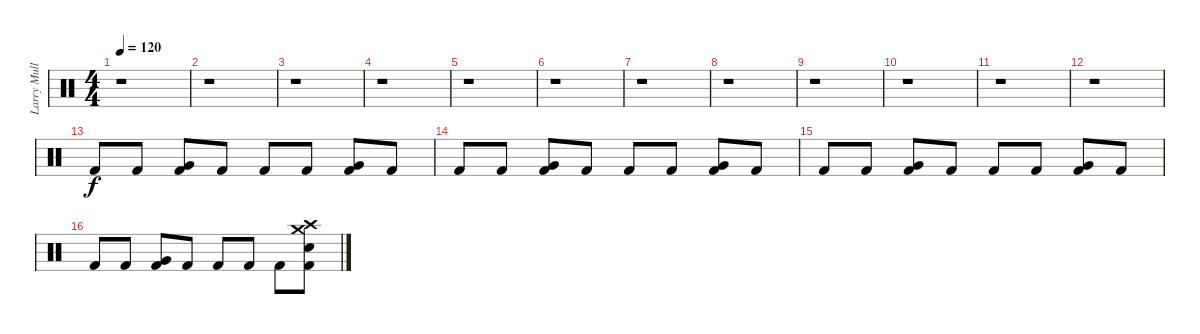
\track ("Larry Mullen jr." "Larry Mull") {instrument percussion}
\staff {score}
\articulation defaults
\ts (4 4)
\tempo 120
\clef neutral
\ks c
r.1{dy f} |
r.1 |
r.1 |
r.1 |
r.1 |
r.1 |
r.1 |
r.1 |
r.1 |
r.1 |
r.1 |
r.1 |
"Kick (hit) 2".8 "Kick (hit) 2".8 ("Kick (hit) 2" "Very Low Tom (hit)").8 "Kick (hit) 2".8 "Kick (hit) 2".8 "Kick (hit) 2".8 ("Kick (hit) 2" "Very Low Tom (hit)").8 "Kick (hit) 2".8 |
"Kick (hit) 2".8 "Kick (hit) 2".8 ("Kick (hit) 2" "Very Low Tom (hit)").8 "Kick (hit) 2".8 "Kick (hit) 2".8 "Kick (hit) 2".8 ("Kick (hit) 2" "Very Low Tom (hit)").8 "Kick (hit) 2".8 |
"Kick (hit) 2".8 "Kick (hit) 2".8 ("Kick (hit) 2" "Very Low Tom (hit)").8 "Kick (hit) 2".8 "Kick (hit) 2".8 "Kick (hit) 2".8 ("Kick (hit) 2" "Very Low Tom (hit)").8 "Kick (hit) 2".8 |
"Kick (hit) 2".8 "Kick (hit) 2".8 ("Kick (hit) 2" "Very Low Tom (hit)").8 "Kick (hit) 2".8 "Kick (hit) 2".8 "Kick (hit) 2".8 "Kick (hit) 2".8 ("Kick (hit) 2" "Electric Snare (hit)" "Crash high (hit)" "Crash medium (hit)").8
